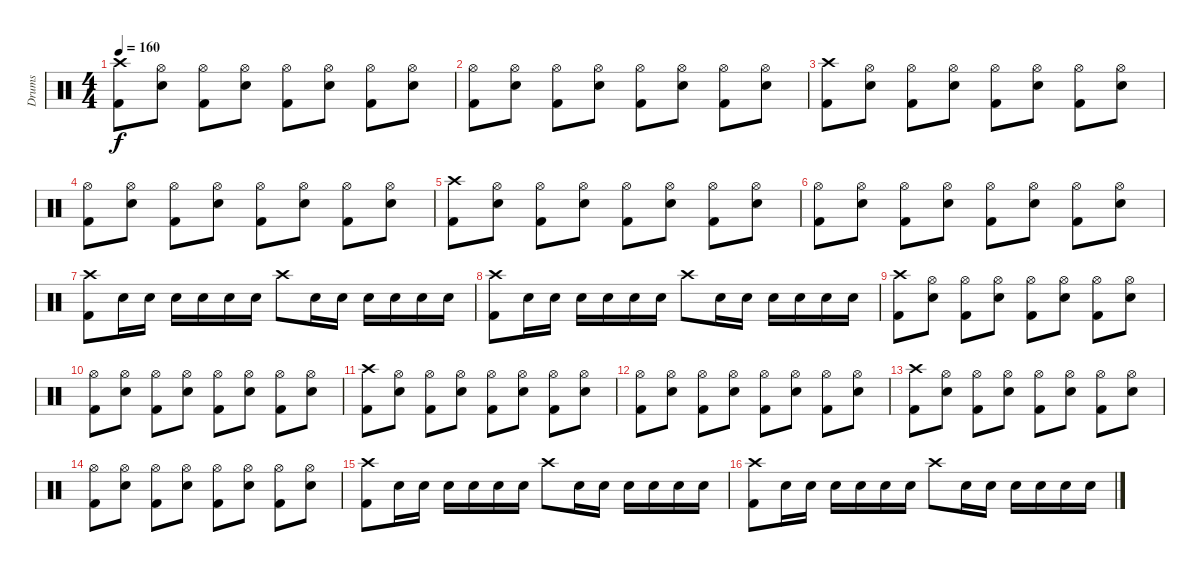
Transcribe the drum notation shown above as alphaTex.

\track ("Drums" "Drums") {solo instrument percussion}
\staff {score}
\articulation defaults
\ts (4 4)
\tempo 160
\clef neutral
\ks c
("Crash high (hit)" "Kick (hit) 2").8{dy f} ("Hi-Hat (open)" "Snare (hit) 2").8 ("Hi-Hat (open)" "Kick (hit) 2").8 ("Hi-Hat (open)" "Snare (hit) 2").8 ("Hi-Hat (open)" "Kick (hit) 2").8 ("Hi-Hat (open)" "Snare (hit) 2").8 ("Hi-Hat (open)" "Kick (hit) 2").8 ("Hi-Hat (open)" "Snare (hit) 2").8 |
("Hi-Hat (open)" "Kick (hit) 2").8 ("Hi-Hat (open)" "Snare (hit) 2").8 ("Hi-Hat (open)" "Kick (hit) 2").8 ("Hi-Hat (open)" "Snare (hit) 2").8 ("Hi-Hat (open)" "Kick (hit) 2").8 ("Hi-Hat (open)" "Snare (hit) 2").8 ("Hi-Hat (open)" "Kick (hit) 2").8 ("Hi-Hat (open)" "Snare (hit) 2").8 |
("Crash high (hit)" "Kick (hit) 2").8 ("Hi-Hat (open)" "Snare (hit) 2").8 ("Hi-Hat (open)" "Kick (hit) 2").8 ("Hi-Hat (open)" "Snare (hit) 2").8 ("Hi-Hat (open)" "Kick (hit) 2").8 ("Hi-Hat (open)" "Snare (hit) 2").8 ("Hi-Hat (open)" "Kick (hit) 2").8 ("Hi-Hat (open)" "Snare (hit) 2").8 |
("Hi-Hat (open)" "Kick (hit) 2").8 ("Hi-Hat (open)" "Snare (hit) 2").8 ("Hi-Hat (open)" "Kick (hit) 2").8 ("Hi-Hat (open)" "Snare (hit) 2").8 ("Hi-Hat (open)" "Kick (hit) 2").8 ("Hi-Hat (open)" "Snare (hit) 2").8 ("Hi-Hat (open)" "Kick (hit) 2").8 ("Hi-Hat (open)" "Snare (hit) 2").8 |
("Crash high (hit)" "Kick (hit) 2").8 ("Hi-Hat (open)" "Snare (hit) 2").8 ("Hi-Hat (open)" "Kick (hit) 2").8 ("Hi-Hat (open)" "Snare (hit) 2").8 ("Hi-Hat (open)" "Kick (hit) 2").8 ("Hi-Hat (open)" "Snare (hit) 2").8 ("Hi-Hat (open)" "Kick (hit) 2").8 ("Hi-Hat (open)" "Snare (hit) 2").8 |
("Hi-Hat (open)" "Kick (hit) 2").8 ("Hi-Hat (open)" "Snare (hit) 2").8 ("Hi-Hat (open)" "Kick (hit) 2").8 ("Hi-Hat (open)" "Snare (hit) 2").8 ("Hi-Hat (open)" "Kick (hit) 2").8 ("Hi-Hat (open)" "Snare (hit) 2").8 ("Hi-Hat (open)" "Kick (hit) 2").8 ("Hi-Hat (open)" "Snare (hit) 2").8 |
("Crash high (hit)" "Kick (hit) 2").8 "Snare (hit) 2".16 "Snare (hit) 2".16 "Snare (hit) 2".16 "Snare (hit) 2".16 "Snare (hit) 2".16 "Snare (hit) 2".16 "Crash high (hit)".8 "Snare (hit) 2".16 "Snare (hit) 2".16 "Snare (hit) 2".16 "Snare (hit) 2".16 "Snare (hit) 2".16 "Snare (hit) 2".16 |
("Crash high (hit)" "Kick (hit) 2").8 "Snare (hit) 2".16 "Snare (hit) 2".16 "Snare (hit) 2".16 "Snare (hit) 2".16 "Snare (hit) 2".16 "Snare (hit) 2".16 "Crash high (hit)".8 "Snare (hit) 2".16 "Snare (hit) 2".16 "Snare (hit) 2".16 "Snare (hit) 2".16 "Snare (hit) 2".16 "Snare (hit) 2".16 |
("Crash high (hit)" "Kick (hit) 2").8 ("Hi-Hat (open)" "Snare (hit) 2").8 ("Hi-Hat (open)" "Kick (hit) 2").8 ("Hi-Hat (open)" "Snare (hit) 2").8 ("Hi-Hat (open)" "Kick (hit) 2").8 ("Hi-Hat (open)" "Snare (hit) 2").8 ("Hi-Hat (open)" "Kick (hit) 2").8 ("Hi-Hat (open)" "Snare (hit) 2").8 |
("Hi-Hat (open)" "Kick (hit) 2").8 ("Hi-Hat (open)" "Snare (hit) 2").8 ("Hi-Hat (open)" "Kick (hit) 2").8 ("Hi-Hat (open)" "Snare (hit) 2").8 ("Hi-Hat (open)" "Kick (hit) 2").8 ("Hi-Hat (open)" "Snare (hit) 2").8 ("Hi-Hat (open)" "Kick (hit) 2").8 ("Hi-Hat (open)" "Snare (hit) 2").8 |
("Crash high (hit)" "Kick (hit) 2").8 ("Hi-Hat (open)" "Snare (hit) 2").8 ("Hi-Hat (open)" "Kick (hit) 2").8 ("Hi-Hat (open)" "Snare (hit) 2").8 ("Hi-Hat (open)" "Kick (hit) 2").8 ("Hi-Hat (open)" "Snare (hit) 2").8 ("Hi-Hat (open)" "Kick (hit) 2").8 ("Hi-Hat (open)" "Snare (hit) 2").8 |
("Hi-Hat (open)" "Kick (hit) 2").8 ("Hi-Hat (open)" "Snare (hit) 2").8 ("Hi-Hat (open)" "Kick (hit) 2").8 ("Hi-Hat (open)" "Snare (hit) 2").8 ("Hi-Hat (open)" "Kick (hit) 2").8 ("Hi-Hat (open)" "Snare (hit) 2").8 ("Hi-Hat (open)" "Kick (hit) 2").8 ("Hi-Hat (open)" "Snare (hit) 2").8 |
("Crash high (hit)" "Kick (hit) 2").8 ("Hi-Hat (open)" "Snare (hit) 2").8 ("Hi-Hat (open)" "Kick (hit) 2").8 ("Hi-Hat (open)" "Snare (hit) 2").8 ("Hi-Hat (open)" "Kick (hit) 2").8 ("Hi-Hat (open)" "Snare (hit) 2").8 ("Hi-Hat (open)" "Kick (hit) 2").8 ("Hi-Hat (open)" "Snare (hit) 2").8 |
("Hi-Hat (open)" "Kick (hit) 2").8 ("Hi-Hat (open)" "Snare (hit) 2").8 ("Hi-Hat (open)" "Kick (hit) 2").8 ("Hi-Hat (open)" "Snare (hit) 2").8 ("Hi-Hat (open)" "Kick (hit) 2").8 ("Hi-Hat (open)" "Snare (hit) 2").8 ("Hi-Hat (open)" "Kick (hit) 2").8 ("Hi-Hat (open)" "Snare (hit) 2").8 |
("Crash high (hit)" "Kick (hit) 2").8 "Snare (hit) 2".16 "Snare (hit) 2".16 "Snare (hit) 2".16 "Snare (hit) 2".16 "Snare (hit) 2".16 "Snare (hit) 2".16 "Crash high (hit)".8 "Snare (hit) 2".16 "Snare (hit) 2".16 "Snare (hit) 2".16 "Snare (hit) 2".16 "Snare (hit) 2".16 "Snare (hit) 2".16 |
("Crash high (hit)" "Kick (hit) 2").8 "Snare (hit) 2".16 "Snare (hit) 2".16 "Snare (hit) 2".16 "Snare (hit) 2".16 "Snare (hit) 2".16 "Snare (hit) 2".16 "Crash high (hit)".8 "Snare (hit) 2".16 "Snare (hit) 2".16 "Snare (hit) 2".16 "Snare (hit) 2".16 "Snare (hit) 2".16 "Snare (hit) 2".16
